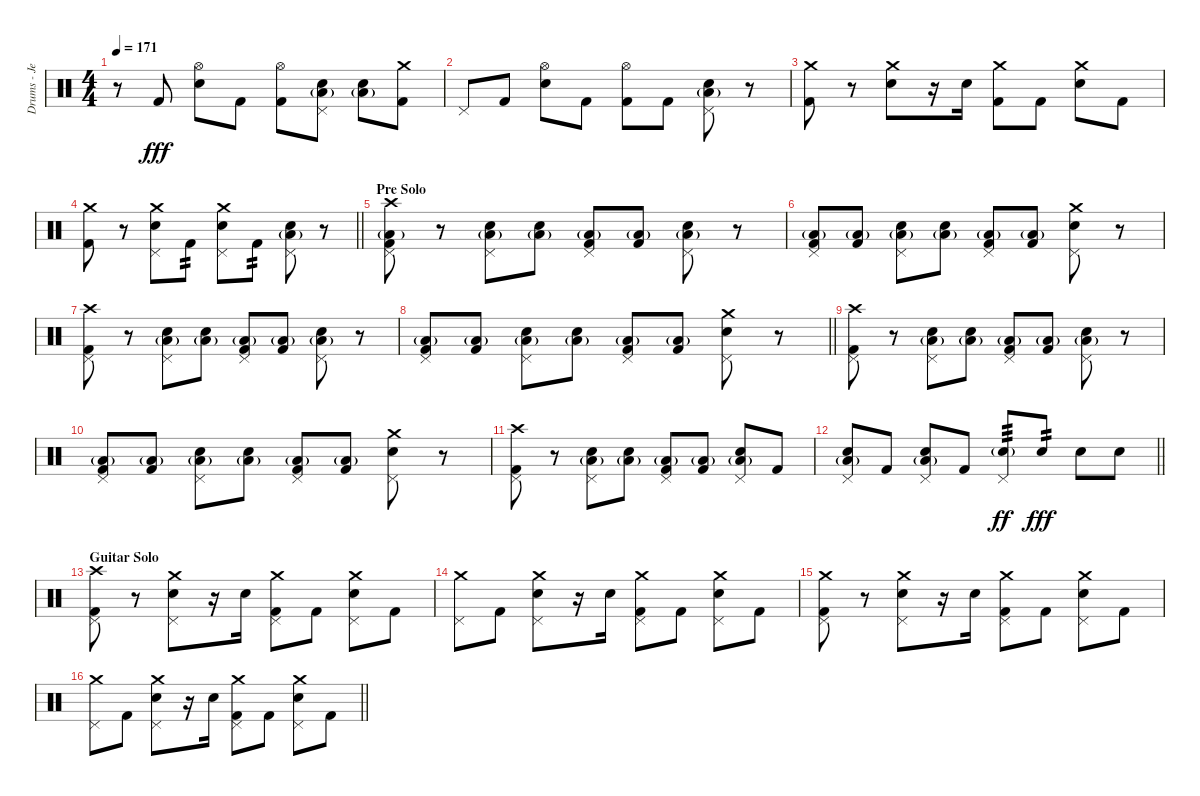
\track ("Drums - Jerinx" "Drums - Je") {instrument percussion}
\staff {score}
\articulation defaults
\ts (4 4)
\tempo 171
\clef neutral
\ks c
r.8{dy fff} "Kick (hit) 2".8 ("Hi-Hat (open)" "Snare (hit) 2").8 "Kick (hit) 2".8 ("Hi-Hat (open)" "Kick (hit) 2").8 ("Pedal Hi-Hat (hit)" "Snare (hit) 2" "Low Floor Tom (hit)"{g}).8 ("Snare (hit) 2" "Low Floor Tom (hit)"{g}).8 ("Kick (hit) 2" "Crash medium (hit)").8 |
"Pedal Hi-Hat (hit)".8 "Kick (hit) 2".8 ("Hi-Hat (open)" "Snare (hit) 2").8 "Kick (hit) 2".8 ("Hi-Hat (open)" "Kick (hit) 2").8 "Kick (hit) 2".8 ("Pedal Hi-Hat (hit)" "Snare (hit) 2" "Low Floor Tom (hit)"{g}).8 r.8 |
("Kick (hit) 2" "Crash medium (hit)").8 r.8 ("Snare (hit) 2" "Crash medium (hit)").8 r.16 "Snare (hit) 2".16 ("Kick (hit) 2" "Crash medium (hit)").8 "Kick (hit) 2".8 ("Snare (hit) 2" "Crash medium (hit)").8 "Kick (hit) 2".8 |
\barLineRight lightlight
("Kick (hit) 2" "Crash medium (hit)").8 r.8 ("Pedal Hi-Hat (hit)" "Snare (hit) 2" "Crash medium (hit)").8 "Kick (hit) 2".8{tp 2} ("Pedal Hi-Hat (hit)" "Snare (hit) 2" "Crash medium (hit)").8 "Kick (hit) 2".8{tp 2} ("Pedal Hi-Hat (hit)" "Snare (hit) 2" "Low Floor Tom (hit)"{g}).8 r.8 |
\section ("" "Pre Solo")
("Pedal Hi-Hat (hit)" "Kick (hit) 2" "Low Floor Tom (hit)"{g} "Crash high (hit)").8 r.8 ("Pedal Hi-Hat (hit)" "Snare (hit) 2" "Low Floor Tom (hit)"{g}).8 ("Snare (hit) 2" "Low Floor Tom (hit)"{g}).8 ("Pedal Hi-Hat (hit)" "Kick (hit) 2" "Low Floor Tom (hit)"{g}).8 ("Kick (hit) 2" "Low Floor Tom (hit)"{g}).8 ("Pedal Hi-Hat (hit)" "Snare (hit) 2" "Low Floor Tom (hit)"{g}).8 r.8 |
("Pedal Hi-Hat (hit)" "Kick (hit) 2" "Low Floor Tom (hit)"{g}).8 ("Kick (hit) 2" "Low Floor Tom (hit)"{g}).8 ("Pedal Hi-Hat (hit)" "Snare (hit) 2" "Low Floor Tom (hit)"{g}).8 ("Snare (hit) 2" "Low Floor Tom (hit)"{g}).8 ("Pedal Hi-Hat (hit)" "Kick (hit) 2" "Low Floor Tom (hit)"{g}).8 ("Kick (hit) 2" "Low Floor Tom (hit)"{g}).8 ("Pedal Hi-Hat (hit)" "Snare (hit) 2" "Crash medium (hit)").8 r.8 |
("Pedal Hi-Hat (hit)" "Kick (hit) 2" "Crash high (hit)").8 r.8 ("Pedal Hi-Hat (hit)" "Snare (hit) 2" "Low Floor Tom (hit)"{g}).8 ("Snare (hit) 2" "Low Floor Tom (hit)"{g}).8 ("Pedal Hi-Hat (hit)" "Kick (hit) 2" "Low Floor Tom (hit)"{g}).8 ("Kick (hit) 2" "Low Floor Tom (hit)"{g}).8 ("Pedal Hi-Hat (hit)" "Snare (hit) 2" "Low Floor Tom (hit)"{g}).8 r.8 |
\barLineRight lightlight
("Pedal Hi-Hat (hit)" "Kick (hit) 2" "Low Floor Tom (hit)"{g}).8 ("Kick (hit) 2" "Low Floor Tom (hit)"{g}).8 ("Pedal Hi-Hat (hit)" "Snare (hit) 2" "Low Floor Tom (hit)"{g}).8 ("Snare (hit) 2" "Low Floor Tom (hit)"{g}).8 ("Pedal Hi-Hat (hit)" "Kick (hit) 2" "Low Floor Tom (hit)"{g}).8 ("Kick (hit) 2" "Low Floor Tom (hit)"{g}).8 ("Pedal Hi-Hat (hit)" "Snare (hit) 2" "Crash medium (hit)").8 r.8 |
("Pedal Hi-Hat (hit)" "Kick (hit) 2" "Crash high (hit)").8 r.8 ("Pedal Hi-Hat (hit)" "Snare (hit) 2" "Low Floor Tom (hit)"{g}).8 ("Snare (hit) 2" "Low Floor Tom (hit)"{g}).8 ("Pedal Hi-Hat (hit)" "Kick (hit) 2" "Low Floor Tom (hit)"{g}).8 ("Kick (hit) 2" "Low Floor Tom (hit)"{g}).8 ("Pedal Hi-Hat (hit)" "Snare (hit) 2" "Low Floor Tom (hit)"{g}).8 r.8 |
("Pedal Hi-Hat (hit)" "Kick (hit) 2" "Low Floor Tom (hit)"{g}).8 ("Kick (hit) 2" "Low Floor Tom (hit)"{g}).8 ("Pedal Hi-Hat (hit)" "Snare (hit) 2" "Low Floor Tom (hit)"{g}).8 ("Snare (hit) 2" "Low Floor Tom (hit)"{g}).8 ("Pedal Hi-Hat (hit)" "Kick (hit) 2" "Low Floor Tom (hit)"{g}).8 ("Kick (hit) 2" "Low Floor Tom (hit)"{g}).8 ("Pedal Hi-Hat (hit)" "Snare (hit) 2" "Crash medium (hit)").8 r.8 |
("Pedal Hi-Hat (hit)" "Kick (hit) 2" "Crash high (hit)").8 r.8 ("Pedal Hi-Hat (hit)" "Snare (hit) 2" "Low Floor Tom (hit)"{g}).8 ("Snare (hit) 2" "Low Floor Tom (hit)"{g}).8 ("Pedal Hi-Hat (hit)" "Kick (hit) 2" "Low Floor Tom (hit)"{g}).8 ("Kick (hit) 2" "Low Floor Tom (hit)"{g}).8 ("Pedal Hi-Hat (hit)" "Snare (hit) 2" "Low Floor Tom (hit)"{g}).8 "Kick (hit) 2".8 |
\barLineRight lightlight
("Pedal Hi-Hat (hit)" "Snare (hit) 2" "Low Floor Tom (hit)"{g}).8 "Kick (hit) 2".8 ("Pedal Hi-Hat (hit)" "Snare (hit) 2" "Low Floor Tom (hit)"{g}).8 "Kick (hit) 2".8 ("Pedal Hi-Hat (hit)" "Snare (hit) 2"{g}).8{tp 3 dy ff} "Snare (hit) 2".8{tp 2 dy fff} "Snare (hit) 2".8 "Snare (hit) 2".8 |
\section ("" "Guitar Solo")
("Pedal Hi-Hat (hit)" "Kick (hit) 2" "Crash high (hit)").8 r.8 ("Pedal Hi-Hat (hit)" "Snare (hit) 2" "Crash medium (hit)").8 r.16 "Snare (hit) 2".16 ("Pedal Hi-Hat (hit)" "Kick (hit) 2" "Crash medium (hit)").8 "Kick (hit) 2".8 ("Pedal Hi-Hat (hit)" "Snare (hit) 2" "Crash medium (hit)").8 "Kick (hit) 2".8 |
("Pedal Hi-Hat (hit)" "Crash medium (hit)").8 "Kick (hit) 2".8 ("Pedal Hi-Hat (hit)" "Snare (hit) 2" "Crash medium (hit)").8 r.16 "Snare (hit) 2".16 ("Pedal Hi-Hat (hit)" "Kick (hit) 2" "Crash medium (hit)").8 "Kick (hit) 2".8 ("Pedal Hi-Hat (hit)" "Snare (hit) 2" "Crash medium (hit)").8 "Kick (hit) 2".8 |
("Pedal Hi-Hat (hit)" "Kick (hit) 2" "Crash medium (hit)").8 r.8 ("Pedal Hi-Hat (hit)" "Snare (hit) 2" "Crash medium (hit)").8 r.16 "Snare (hit) 2".16 ("Pedal Hi-Hat (hit)" "Kick (hit) 2" "Crash medium (hit)").8 "Kick (hit) 2".8 ("Pedal Hi-Hat (hit)" "Snare (hit) 2" "Crash medium (hit)").8 "Kick (hit) 2".8 |
\barLineRight lightlight
("Pedal Hi-Hat (hit)" "Crash medium (hit)").8 "Kick (hit) 2".8 ("Pedal Hi-Hat (hit)" "Snare (hit) 2" "Crash medium (hit)").8 r.16 "Snare (hit) 2".16 ("Pedal Hi-Hat (hit)" "Kick (hit) 2" "Crash medium (hit)").8 "Kick (hit) 2".8 ("Pedal Hi-Hat (hit)" "Snare (hit) 2" "Crash medium (hit)").8 "Kick (hit) 2".8
